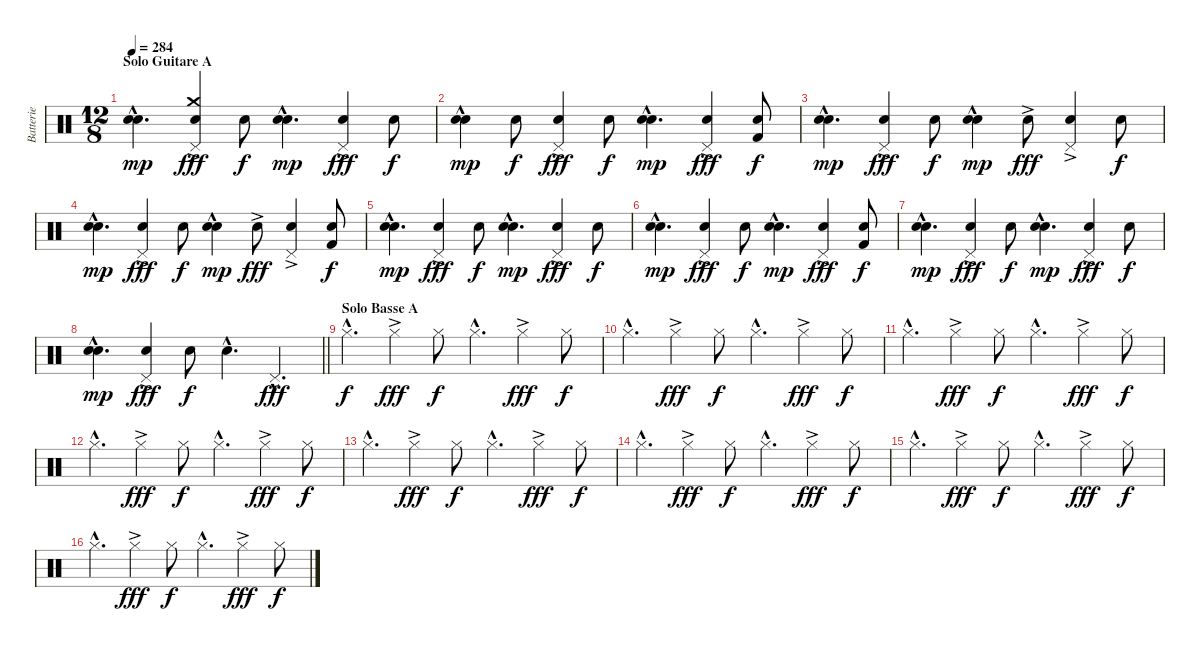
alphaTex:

\track ("Batterie" "Batterie") {instrument percussion}
\staff {score}
\articulation defaults
\ts (12 8)
\section ("" "Solo Guitare A")
\tempo 284
\clef neutral
\ks c
("Electric Snare (hit)"{hac} "Snare (hit) 2"{hac}).4{d dy mp volume 11 balance 8} ("Crash medium (hit)" "Pedal Hi-Hat (hit)"{ac} "Snare (hit) 2").4{dy fff} "Snare (hit) 2".8{dy f} ("Electric Snare (hit)"{hac} "Snare (hit) 2"{hac}).4{d dy mp} ("Pedal Hi-Hat (hit)"{ac} "Snare (hit) 2").4{dy fff} "Snare (hit) 2".8{dy f} |
("Electric Snare (hit)"{hac} "Snare (hit) 2").4{dy mp} "Snare (hit) 2".8{dy f} ("Pedal Hi-Hat (hit)"{ac} "Snare (hit) 2").4{dy fff} "Snare (hit) 2".8{dy f} ("Electric Snare (hit)"{hac} "Snare (hit) 2"{hac}).4{d dy mp} ("Pedal Hi-Hat (hit)"{ac} "Snare (hit) 2").4{dy fff} ("Snare (hit) 2" "Kick (hit) 2").8{dy f} |
("Electric Snare (hit)"{hac} "Snare (hit) 2"{hac}).4{d dy mp} ("Pedal Hi-Hat (hit)"{ac} "Snare (hit) 2").4{dy fff} "Snare (hit) 2".8{dy f} ("Electric Snare (hit)"{hac} "Snare (hit) 2").4{dy mp} "Snare (hit) 2"{ac}.8{dy fff} ("Pedal Hi-Hat (hit)"{ac} "Snare (hit) 2").4 "Snare (hit) 2".8{dy f} |
("Electric Snare (hit)"{hac} "Snare (hit) 2"{hac}).4{d dy mp} ("Pedal Hi-Hat (hit)"{ac} "Snare (hit) 2").4{dy fff} "Snare (hit) 2".8{dy f} ("Electric Snare (hit)"{hac} "Snare (hit) 2").4{dy mp} "Snare (hit) 2"{ac}.8{dy fff} ("Pedal Hi-Hat (hit)"{ac} "Snare (hit) 2").4 ("Snare (hit) 2" "Kick (hit) 2").8{dy f} |
("Electric Snare (hit)"{hac} "Snare (hit) 2"{hac}).4{d dy mp} ("Pedal Hi-Hat (hit)"{ac} "Snare (hit) 2").4{dy fff} "Snare (hit) 2".8{dy f} ("Electric Snare (hit)"{hac} "Snare (hit) 2"{hac}).4{d dy mp} ("Pedal Hi-Hat (hit)"{ac} "Snare (hit) 2").4{dy fff} "Snare (hit) 2".8{dy f} |
("Electric Snare (hit)"{hac} "Snare (hit) 2"{hac}).4{d dy mp} ("Pedal Hi-Hat (hit)"{ac} "Snare (hit) 2").4{dy fff} "Snare (hit) 2".8{dy f} ("Electric Snare (hit)"{hac} "Snare (hit) 2"{hac}).4{d dy mp} ("Pedal Hi-Hat (hit)"{ac} "Snare (hit) 2").4{dy fff} ("Snare (hit) 2" "Kick (hit) 2").8{dy f} |
("Electric Snare (hit)"{hac} "Snare (hit) 2"{hac}).4{d dy mp} ("Pedal Hi-Hat (hit)"{ac} "Snare (hit) 2").4{dy fff} "Snare (hit) 2".8{dy f} ("Electric Snare (hit)"{hac} "Snare (hit) 2"{hac}).4{d dy mp} ("Pedal Hi-Hat (hit)"{ac} "Snare (hit) 2").4{dy fff} "Snare (hit) 2".8{dy f} |
\barLineRight lightlight
("Electric Snare (hit)"{hac} "Snare (hit) 2"{hac}).4{d dy mp} ("Pedal Hi-Hat (hit)"{ac} "Snare (hit) 2").4{dy fff} "Snare (hit) 2".8{dy f} "Snare (hit) 2"{hac}.4{d} "Pedal Hi-Hat (hit)"{hac}.4{d dy fff} |
\section ("" "Solo Basse A")
"Hi-Hat (closed)"{hac}.4{d dy f volume 11 balance 8} "Hi-Hat (closed)"{ac}.4{dy fff} "Hi-Hat (closed)".8{dy f} "Hi-Hat (closed)"{hac}.4{d} "Hi-Hat (closed)"{ac}.4{dy fff} "Hi-Hat (closed)".8{dy f} |
"Hi-Hat (closed)"{hac}.4{d} "Hi-Hat (closed)"{ac}.4{dy fff} "Hi-Hat (closed)".8{dy f} "Hi-Hat (closed)"{hac}.4{d} "Hi-Hat (closed)"{ac}.4{dy fff} "Hi-Hat (closed)".8{dy f} |
"Hi-Hat (closed)"{hac}.4{d} "Hi-Hat (closed)"{ac}.4{dy fff} "Hi-Hat (closed)".8{dy f} "Hi-Hat (closed)"{hac}.4{d} "Hi-Hat (closed)"{ac}.4{dy fff} "Hi-Hat (closed)".8{dy f} |
"Hi-Hat (closed)"{hac}.4{d} "Hi-Hat (closed)"{ac}.4{dy fff} "Hi-Hat (closed)".8{dy f} "Hi-Hat (closed)"{hac}.4{d} "Hi-Hat (closed)"{ac}.4{dy fff} "Hi-Hat (closed)".8{dy f} |
"Hi-Hat (closed)"{hac}.4{d} "Hi-Hat (closed)"{ac}.4{dy fff} "Hi-Hat (closed)".8{dy f} "Hi-Hat (closed)"{hac}.4{d} "Hi-Hat (closed)"{ac}.4{dy fff} "Hi-Hat (closed)".8{dy f} |
"Hi-Hat (closed)"{hac}.4{d} "Hi-Hat (closed)"{ac}.4{dy fff} "Hi-Hat (closed)".8{dy f} "Hi-Hat (closed)"{hac}.4{d} "Hi-Hat (closed)"{ac}.4{dy fff} "Hi-Hat (closed)".8{dy f} |
"Hi-Hat (closed)"{hac}.4{d} "Hi-Hat (closed)"{ac}.4{dy fff} "Hi-Hat (closed)".8{dy f} "Hi-Hat (closed)"{hac}.4{d} "Hi-Hat (closed)"{ac}.4{dy fff} "Hi-Hat (closed)".8{dy f} |
"Hi-Hat (closed)"{hac}.4{d} "Hi-Hat (closed)"{ac}.4{dy fff} "Hi-Hat (closed)".8{dy f} "Hi-Hat (closed)"{hac}.4{d} "Hi-Hat (closed)"{ac}.4{dy fff} "Hi-Hat (closed)".8{dy f}
